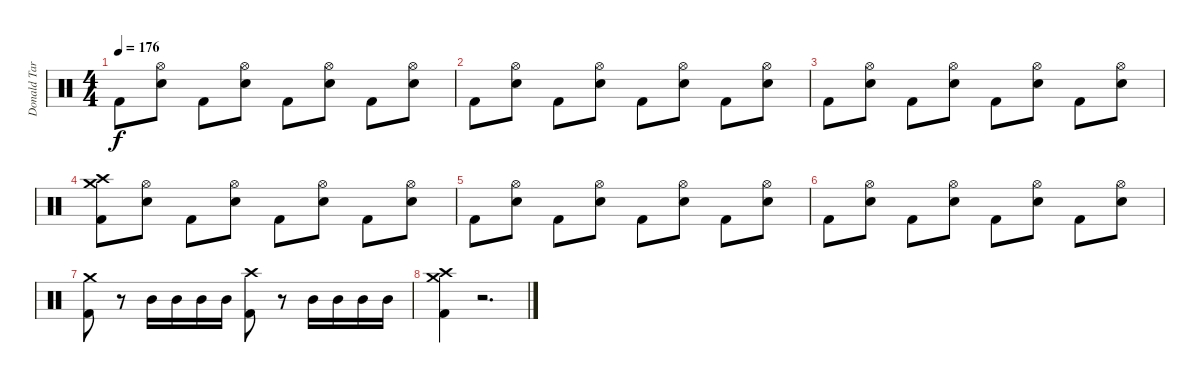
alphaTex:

\track ("Donald Tardy (Drums)" "Donald Tar") {instrument percussion}
\staff {score}
\articulation defaults
\ts (4 4)
\tempo 176
\clef neutral
\ks c "Kick (hit) 2".8{dy f}
("Electric Snare (hit)" "Hi-Hat (open)").8 "Kick (hit) 2".8 ("Electric Snare (hit)" "Hi-Hat (open)").8 "Kick (hit) 2".8 ("Electric Snare (hit)" "Hi-Hat (open)").8 "Kick (hit) 2".8 ("Electric Snare (hit)" "Hi-Hat (open)").8 |
"Kick (hit) 2".8 ("Electric Snare (hit)" "Hi-Hat (open)").8 "Kick (hit) 2".8 ("Electric Snare (hit)" "Hi-Hat (open)").8 "Kick (hit) 2".8 ("Electric Snare (hit)" "Hi-Hat (open)").8 "Kick (hit) 2".8 ("Electric Snare (hit)" "Hi-Hat (open)").8 |
"Kick (hit) 2".8 ("Electric Snare (hit)" "Hi-Hat (open)").8 "Kick (hit) 2".8 ("Electric Snare (hit)" "Hi-Hat (open)").8 "Kick (hit) 2".8 ("Electric Snare (hit)" "Hi-Hat (open)").8 "Kick (hit) 2".8 ("Electric Snare (hit)" "Hi-Hat (open)").8 |
("Kick (hit) 2" "Crash medium (hit)" "Crash high (hit)").8 ("Electric Snare (hit)" "Hi-Hat (open)").8 "Kick (hit) 2".8 ("Electric Snare (hit)" "Hi-Hat (open)").8 "Kick (hit) 2".8 ("Electric Snare (hit)" "Hi-Hat (open)").8 "Kick (hit) 2".8 ("Electric Snare (hit)" "Hi-Hat (open)").8 |
"Kick (hit) 2".8 ("Electric Snare (hit)" "Hi-Hat (open)").8 "Kick (hit) 2".8 ("Electric Snare (hit)" "Hi-Hat (open)").8 "Kick (hit) 2".8 ("Electric Snare (hit)" "Hi-Hat (open)").8 "Kick (hit) 2".8 ("Electric Snare (hit)" "Hi-Hat (open)").8 |
"Kick (hit) 2".8 ("Electric Snare (hit)" "Hi-Hat (open)").8 "Kick (hit) 2".8 ("Electric Snare (hit)" "Hi-Hat (open)").8 "Kick (hit) 2".8 ("Electric Snare (hit)" "Hi-Hat (open)").8 "Kick (hit) 2".8 ("Electric Snare (hit)" "Hi-Hat (open)").8 |
("Kick (hit) 2" "Crash medium (hit)").8 r.8 "Mid Tom (hit)".16 "Mid Tom (hit)".16 "Mid Tom (hit)".16 "Mid Tom (hit)".16 ("Kick (hit) 2" "Crash high (hit)").8 r.8 "Mid Tom (hit)".16 "Mid Tom (hit)".16 "Mid Tom (hit)".16 "Mid Tom (hit)".16 |
("Kick (hit) 2" "Crash medium (hit)" "Crash high (hit)").4 r.2{d}
